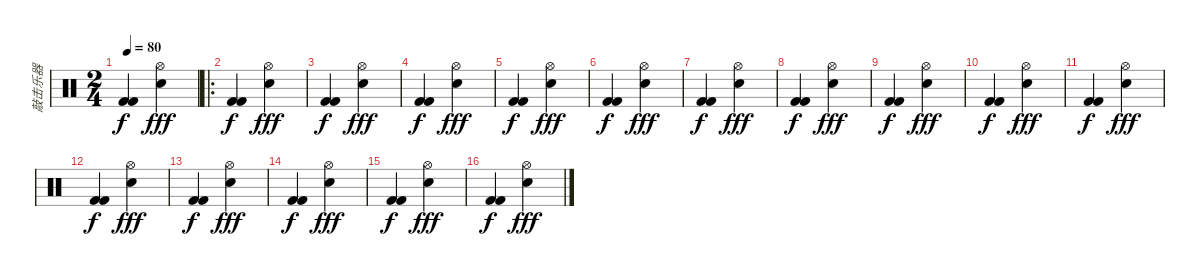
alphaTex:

\track ("敲击乐器" "敲击乐器") {instrument percussion}
\staff {score}
\articulation defaults
\ts (2 4)
\tempo 80
\clef neutral
\ks c
("Kick (hit) 2" "Kick (hit) 2").4{dy f} ("Hi-Hat (open)" "Snare (hit) 2").4{dy fff} |
\ro
("Kick (hit) 2" "Kick (hit) 2").4{dy f} ("Hi-Hat (open)" "Snare (hit) 2").4{dy fff} |
("Kick (hit) 2" "Kick (hit) 2").4{dy f} ("Hi-Hat (open)" "Snare (hit) 2").4{dy fff} |
("Kick (hit) 2" "Kick (hit) 2").4{dy f} ("Hi-Hat (open)" "Snare (hit) 2").4{dy fff} |
("Kick (hit) 2" "Kick (hit) 2").4{dy f} ("Hi-Hat (open)" "Snare (hit) 2").4{dy fff} |
("Kick (hit) 2" "Kick (hit) 2").4{dy f} ("Hi-Hat (open)" "Snare (hit) 2").4{dy fff} |
("Kick (hit) 2" "Kick (hit) 2").4{dy f} ("Hi-Hat (open)" "Snare (hit) 2").4{dy fff} |
("Kick (hit) 2" "Kick (hit) 2").4{dy f} ("Hi-Hat (open)" "Snare (hit) 2").4{dy fff} |
("Kick (hit) 2" "Kick (hit) 2").4{dy f} ("Hi-Hat (open)" "Snare (hit) 2").4{dy fff} |
("Kick (hit) 2" "Kick (hit) 2").4{dy f} ("Hi-Hat (open)" "Snare (hit) 2").4{dy fff} |
("Kick (hit) 2" "Kick (hit) 2").4{dy f} ("Hi-Hat (open)" "Snare (hit) 2").4{dy fff} |
("Kick (hit) 2" "Kick (hit) 2").4{dy f} ("Hi-Hat (open)" "Snare (hit) 2").4{dy fff} |
("Kick (hit) 2" "Kick (hit) 2").4{dy f} ("Hi-Hat (open)" "Snare (hit) 2").4{dy fff} |
("Kick (hit) 2" "Kick (hit) 2").4{dy f} ("Hi-Hat (open)" "Snare (hit) 2").4{dy fff} |
("Kick (hit) 2" "Kick (hit) 2").4{dy f} ("Hi-Hat (open)" "Snare (hit) 2").4{dy fff} |
("Kick (hit) 2" "Kick (hit) 2").4{dy f} ("Hi-Hat (open)" "Snare (hit) 2").4{dy fff}
